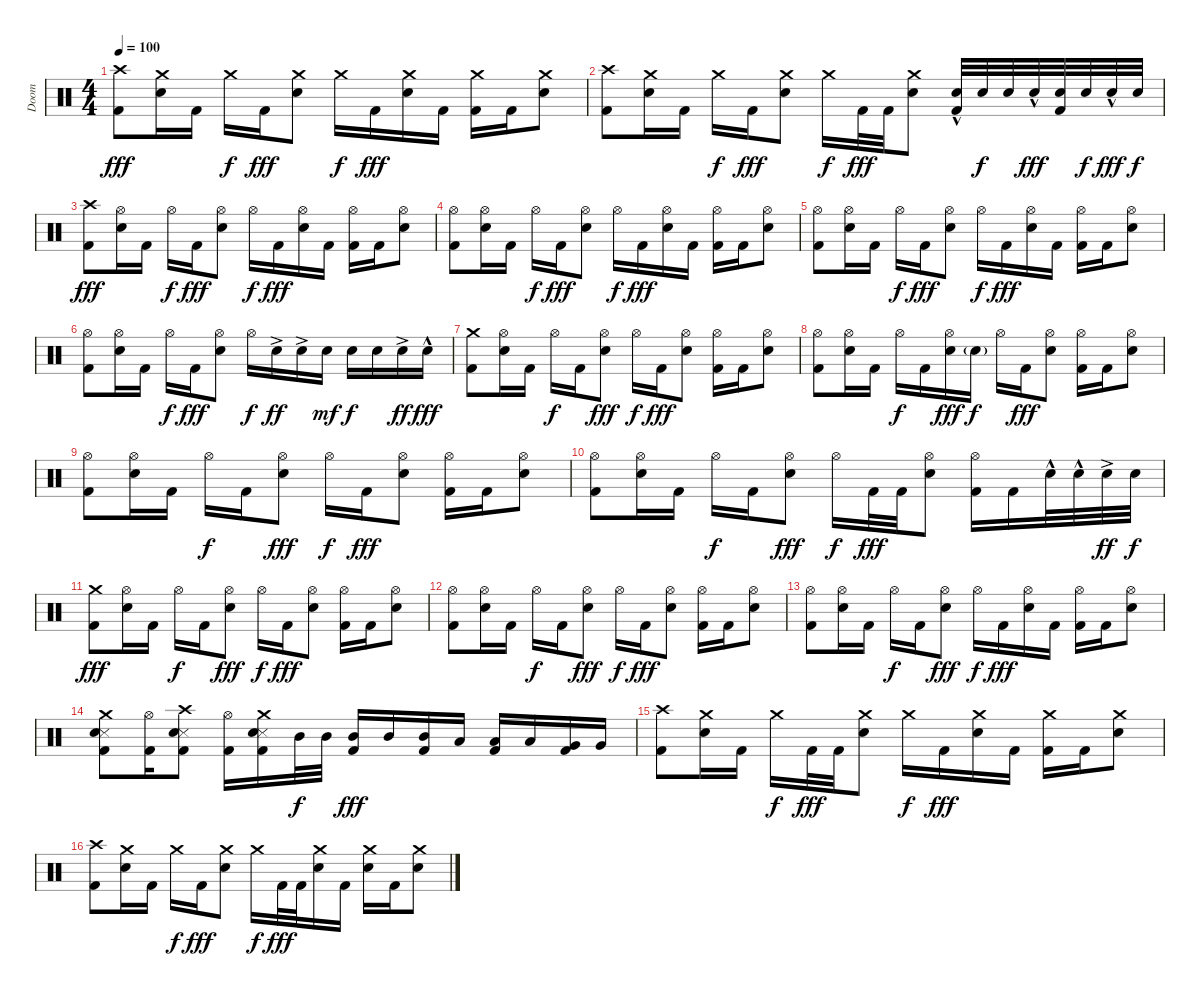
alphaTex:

\track ("Doom" "Doom") {instrument percussion}
\staff {score}
\articulation defaults
\ts (4 4)
\tempo 100
\clef neutral
\ks c
("Crash high (hit)" "Kick (hit) 2").8{dy fff} ("Crash medium (hit)" "Electric Snare (hit)").16 "Kick (hit) 2".16 "Crash medium (hit)".16{dy f} "Kick (hit) 2".16{dy fff} ("Crash medium (hit)" "Electric Snare (hit)").8 "Crash medium (hit)".16{dy f} "Kick (hit) 2".16{dy fff} ("Crash medium (hit)" "Electric Snare (hit)").16 "Kick (hit) 2".16 ("Crash medium (hit)" "Kick (hit) 2").16 "Kick (hit) 2".16 ("Crash medium (hit)" "Electric Snare (hit)").8 |
("Crash high (hit)" "Kick (hit) 2").8 ("Crash medium (hit)" "Electric Snare (hit)").16 "Kick (hit) 2".16 "Crash medium (hit)".16{dy f} "Kick (hit) 2".16{dy fff} ("Crash medium (hit)" "Electric Snare (hit)").8 "Crash medium (hit)".16{dy f} "Kick (hit) 2".32{dy fff} "Kick (hit) 2".32 ("Crash medium (hit)" "Electric Snare (hit)").8 ("Electric Snare (hit)"{hac} "Kick (hit) 2").32 "Electric Snare (hit)".32{dy f} "Electric Snare (hit)".32 "Electric Snare (hit)"{hac}.32{dy fff} ("Electric Snare (hit)" "Kick (hit) 2").32 "Electric Snare (hit)".32{dy f} "Electric Snare (hit)"{hac}.32{dy fff} "Electric Snare (hit)".32{dy f} |
("Crash high (hit)" "Kick (hit) 2").8{dy fff} ("Hi-Hat (open)" "Electric Snare (hit)").16 "Kick (hit) 2".16 "Hi-Hat (open)".16{dy f} "Kick (hit) 2".16{dy fff} ("Hi-Hat (open)" "Electric Snare (hit)").8 "Hi-Hat (open)".16{dy f} "Kick (hit) 2".16{dy fff} ("Hi-Hat (open)" "Electric Snare (hit)").16 "Kick (hit) 2".16 ("Hi-Hat (open)" "Kick (hit) 2").16 "Kick (hit) 2".16 ("Hi-Hat (open)" "Electric Snare (hit)").8 |
("Hi-Hat (open)" "Kick (hit) 2").8 ("Hi-Hat (open)" "Electric Snare (hit)").16 "Kick (hit) 2".16 "Hi-Hat (open)".16{dy f} "Kick (hit) 2".16{dy fff} ("Hi-Hat (open)" "Electric Snare (hit)").8 "Hi-Hat (open)".16{dy f} "Kick (hit) 2".16{dy fff} ("Hi-Hat (open)" "Electric Snare (hit)").16 "Kick (hit) 2".16 ("Hi-Hat (open)" "Kick (hit) 2").16 "Kick (hit) 2".16 ("Hi-Hat (open)" "Electric Snare (hit)").8 |
("Hi-Hat (open)" "Kick (hit) 2").8 ("Hi-Hat (open)" "Electric Snare (hit)").16 "Kick (hit) 2".16 "Hi-Hat (open)".16{dy f} "Kick (hit) 2".16{dy fff} ("Hi-Hat (open)" "Electric Snare (hit)").8 "Hi-Hat (open)".16{dy f} "Kick (hit) 2".16{dy fff} ("Hi-Hat (open)" "Electric Snare (hit)").16 "Kick (hit) 2".16 ("Hi-Hat (open)" "Kick (hit) 2").16 "Kick (hit) 2".16 ("Hi-Hat (open)" "Electric Snare (hit)").8 |
("Hi-Hat (open)" "Kick (hit) 2").8 ("Hi-Hat (open)" "Electric Snare (hit)").16 "Kick (hit) 2".16 "Hi-Hat (open)".16{dy f} "Kick (hit) 2".16{dy fff} ("Hi-Hat (open)" "Electric Snare (hit)").8 "Hi-Hat (open)".16{dy f} "Electric Snare (hit)"{ac}.16{dy ff} "Electric Snare (hit)"{ac}.16 "Electric Snare (hit)".16{dy mf} "Electric Snare (hit)".16{dy f} "Electric Snare (hit)".16 "Electric Snare (hit)"{ac}.16{dy ff} "Electric Snare (hit)"{hac}.16{dy fff} |
("Crash medium (hit)" "Kick (hit) 2").8 ("Hi-Hat (open)" "Electric Snare (hit)").16 "Kick (hit) 2".16 "Hi-Hat (open)".16{dy f} "Kick (hit) 2".16 ("Hi-Hat (open)" "Electric Snare (hit)").8{dy fff} "Hi-Hat (open)".16{dy f} "Kick (hit) 2".16{dy fff} ("Hi-Hat (open)" "Electric Snare (hit)").8 ("Hi-Hat (open)" "Kick (hit) 2").16 "Kick (hit) 2".16 ("Hi-Hat (open)" "Electric Snare (hit)").8 |
("Hi-Hat (open)" "Kick (hit) 2").8 ("Hi-Hat (open)" "Electric Snare (hit)").16 "Kick (hit) 2".16 "Hi-Hat (open)".16{dy f} "Kick (hit) 2".16 ("Hi-Hat (open)" "Electric Snare (hit)").16{dy fff} "Electric Snare (hit)"{g}.16{dy f} "Hi-Hat (open)".16 "Kick (hit) 2".16{dy fff} ("Hi-Hat (open)" "Electric Snare (hit)").8 ("Hi-Hat (open)" "Kick (hit) 2").16 "Kick (hit) 2".16 ("Hi-Hat (open)" "Electric Snare (hit)").8 |
("Hi-Hat (open)" "Kick (hit) 2").8 ("Hi-Hat (open)" "Electric Snare (hit)").16 "Kick (hit) 2".16 "Hi-Hat (open)".16{dy f} "Kick (hit) 2".16 ("Hi-Hat (open)" "Electric Snare (hit)").8{dy fff} "Hi-Hat (open)".16{dy f} "Kick (hit) 2".16{dy fff} ("Hi-Hat (open)" "Electric Snare (hit)").8 ("Hi-Hat (open)" "Kick (hit) 2").16 "Kick (hit) 2".16 ("Hi-Hat (open)" "Electric Snare (hit)").8 |
("Hi-Hat (open)" "Kick (hit) 2").8 ("Hi-Hat (open)" "Electric Snare (hit)").16 "Kick (hit) 2".16 "Hi-Hat (open)".16{dy f} "Kick (hit) 2".16 ("Hi-Hat (open)" "Electric Snare (hit)").8{dy fff} "Hi-Hat (open)".16{dy f} "Kick (hit) 2".32{dy fff} "Kick (hit) 2".32 ("Hi-Hat (open)" "Electric Snare (hit)").8 ("Hi-Hat (open)" "Kick (hit) 2").16 "Kick (hit) 2".16 "Electric Snare (hit)"{hac}.32 "Electric Snare (hit)"{hac}.32 "Electric Snare (hit)"{ac}.32{dy ff} "Electric Snare (hit)".32{dy f} |
("Crash medium (hit)" "Kick (hit) 2").8{dy fff} ("Hi-Hat (open)" "Electric Snare (hit)").16 "Kick (hit) 2".16 "Hi-Hat (open)".16{dy f} "Kick (hit) 2".16 ("Hi-Hat (open)" "Electric Snare (hit)").8{dy fff} "Hi-Hat (open)".16{dy f} "Kick (hit) 2".16{dy fff} ("Hi-Hat (open)" "Electric Snare (hit)").8 ("Hi-Hat (open)" "Kick (hit) 2").16 "Kick (hit) 2".16 ("Hi-Hat (open)" "Electric Snare (hit)").8 |
("Hi-Hat (open)" "Kick (hit) 2").8 ("Hi-Hat (open)" "Electric Snare (hit)").16 "Kick (hit) 2".16 "Hi-Hat (open)".16{dy f} "Kick (hit) 2".16 ("Hi-Hat (open)" "Electric Snare (hit)").8{dy fff} "Hi-Hat (open)".16{dy f} "Kick (hit) 2".16{dy fff} ("Hi-Hat (open)" "Electric Snare (hit)").8 ("Hi-Hat (open)" "Kick (hit) 2").16 "Kick (hit) 2".16 ("Hi-Hat (open)" "Electric Snare (hit)").8 |
("Hi-Hat (open)" "Kick (hit) 2").8 ("Hi-Hat (open)" "Electric Snare (hit)").16 "Kick (hit) 2".16 "Hi-Hat (open)".16{dy f} "Kick (hit) 2".16 ("Hi-Hat (open)" "Electric Snare (hit)").8{dy fff} "Hi-Hat (open)".16{dy f} "Kick (hit) 2".16{dy fff} ("Hi-Hat (open)" "Electric Snare (hit)").16 "Kick (hit) 2".16 ("Hi-Hat (open)" "Kick (hit) 2").16 "Kick (hit) 2".16 ("Hi-Hat (open)" "Electric Snare (hit)").8 |
("Crash medium (hit)" "Snare (side stick) 3" "Electric Snare (hit)" "Kick (hit) 2").8 ("Hi-Hat (open)" "Kick (hit) 2").16 ("Crash high (hit)" "Snare (side stick) 3" "Electric Snare (hit)" "Kick (hit) 2").8 ("Hi-Hat (open)" "Kick (hit) 2").16 ("Crash medium (hit)" "Snare (side stick) 3" "Electric Snare (hit)" "Kick (hit) 2").16 "Mid Tom (hit)".32{dy f} "Mid Tom (hit)".32 ("Mid Tom (hit)" "Kick (hit) 2").16{dy fff} "Mid Tom (hit)".16 ("Mid Tom (hit)" "Kick (hit) 2").16 "Low Tom (hit)".16 ("Low Tom (hit)" "Kick (hit) 2").16 "Low Tom (hit)".16 ("Very Low Tom (hit)" "Kick (hit) 2").16 "Very Low Tom (hit)".16 |
("Crash high (hit)" "Kick (hit) 2").8 ("Crash medium (hit)" "Electric Snare (hit)").16 "Kick (hit) 2".16 "Crash medium (hit)".16{dy f} "Kick (hit) 2".32{dy fff} "Kick (hit) 2".32 ("Crash medium (hit)" "Electric Snare (hit)").8 "Crash medium (hit)".16{dy f} "Kick (hit) 2".16{dy fff} ("Crash medium (hit)" "Electric Snare (hit)").16 "Kick (hit) 2".16 ("Crash medium (hit)" "Kick (hit) 2").16 "Kick (hit) 2".16 ("Crash medium (hit)" "Electric Snare (hit)").8 |
("Crash high (hit)" "Kick (hit) 2").8 ("Crash medium (hit)" "Electric Snare (hit)").16 "Kick (hit) 2".16 "Crash medium (hit)".16{dy f} "Kick (hit) 2".16{dy fff} ("Crash medium (hit)" "Electric Snare (hit)").8 "Crash medium (hit)".16{dy f} "Kick (hit) 2".32{dy fff} "Kick (hit) 2".32 ("Crash medium (hit)" "Electric Snare (hit)").16 "Kick (hit) 2".16 ("Crash medium (hit)" "Electric Snare (hit)").16 "Kick (hit) 2".16 ("Crash medium (hit)" "Electric Snare (hit)").8
